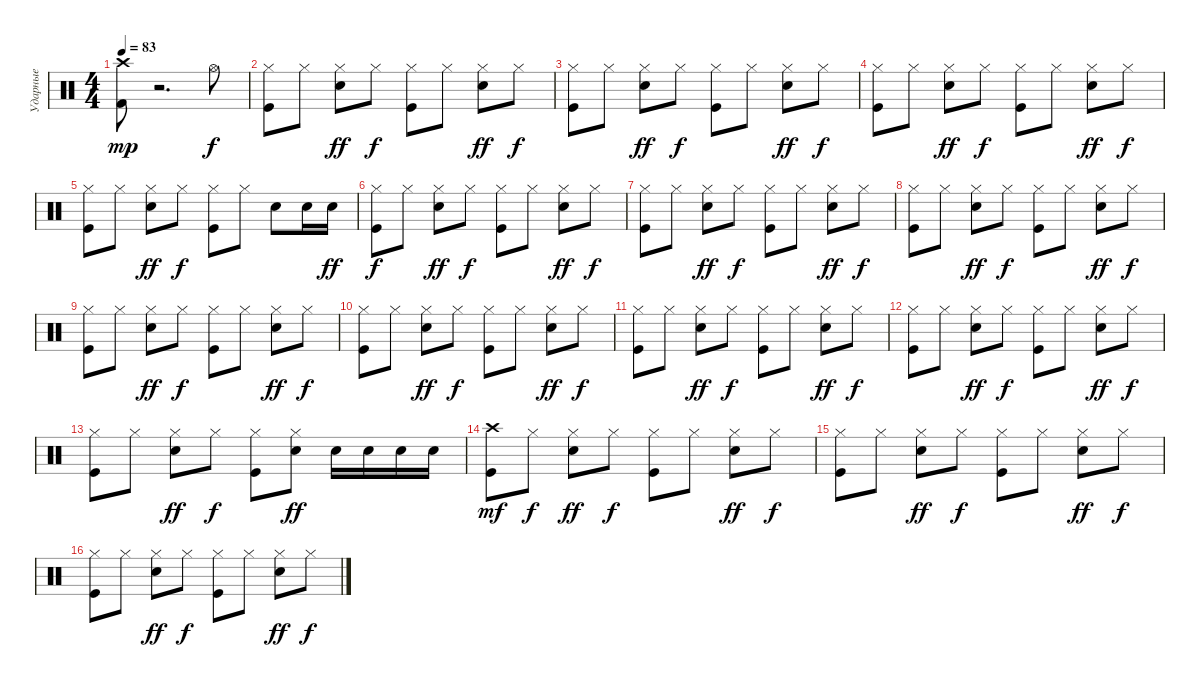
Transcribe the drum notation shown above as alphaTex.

\track ("Ударные" "Ударные") {instrument percussion}
\staff {score}
\articulation defaults
\ts (4 4)
\tempo 83
\clef neutral
\ks c
("Kick (hit) 2" "Crash high (hit)").8{dy mp} r.2{d} "Hi-Hat (open)".8{dy f} |
("Hi-Hat (closed)" "Kick (hit)").8 "Hi-Hat (closed)".8 ("Hi-Hat (closed)" "Electric Snare (hit)").8{dy ff} "Hi-Hat (closed)".8{dy f} ("Hi-Hat (closed)" "Kick (hit)").8 "Hi-Hat (closed)".8 ("Hi-Hat (closed)" "Electric Snare (hit)").8{dy ff} "Hi-Hat (closed)".8{dy f} |
("Hi-Hat (closed)" "Kick (hit)").8 "Hi-Hat (closed)".8 ("Hi-Hat (closed)" "Electric Snare (hit)").8{dy ff} "Hi-Hat (closed)".8{dy f} ("Hi-Hat (closed)" "Kick (hit)").8 "Hi-Hat (closed)".8 ("Hi-Hat (closed)" "Electric Snare (hit)").8{dy ff} "Hi-Hat (closed)".8{dy f} |
("Hi-Hat (closed)" "Kick (hit)").8 "Hi-Hat (closed)".8 ("Hi-Hat (closed)" "Electric Snare (hit)").8{dy ff} "Hi-Hat (closed)".8{dy f} ("Hi-Hat (closed)" "Kick (hit)").8 "Hi-Hat (closed)".8 ("Hi-Hat (closed)" "Electric Snare (hit)").8{dy ff} "Hi-Hat (closed)".8{dy f} |
("Hi-Hat (closed)" "Kick (hit)").8 "Hi-Hat (closed)".8 ("Hi-Hat (closed)" "Electric Snare (hit)").8{dy ff} "Hi-Hat (closed)".8{dy f} ("Hi-Hat (closed)" "Kick (hit)").8 "Hi-Hat (closed)".8 "Electric Snare (hit)".8 "Electric Snare (hit)".16 "Electric Snare (hit)".16{dy ff} |
("Hi-Hat (closed)" "Kick (hit)").8{dy f} "Hi-Hat (closed)".8 ("Hi-Hat (closed)" "Electric Snare (hit)").8{dy ff} "Hi-Hat (closed)".8{dy f} ("Hi-Hat (closed)" "Kick (hit)").8 "Hi-Hat (closed)".8 ("Hi-Hat (closed)" "Electric Snare (hit)").8{dy ff} "Hi-Hat (closed)".8{dy f} |
("Hi-Hat (closed)" "Kick (hit)").8 "Hi-Hat (closed)".8 ("Hi-Hat (closed)" "Electric Snare (hit)").8{dy ff} "Hi-Hat (closed)".8{dy f} ("Hi-Hat (closed)" "Kick (hit)").8 "Hi-Hat (closed)".8 ("Hi-Hat (closed)" "Electric Snare (hit)").8{dy ff} "Hi-Hat (closed)".8{dy f} |
("Hi-Hat (closed)" "Kick (hit)").8 "Hi-Hat (closed)".8 ("Hi-Hat (closed)" "Electric Snare (hit)").8{dy ff} "Hi-Hat (closed)".8{dy f} ("Hi-Hat (closed)" "Kick (hit)").8 "Hi-Hat (closed)".8 ("Hi-Hat (closed)" "Electric Snare (hit)").8{dy ff} "Hi-Hat (closed)".8{dy f} |
("Hi-Hat (closed)" "Kick (hit)").8 "Hi-Hat (closed)".8 ("Hi-Hat (closed)" "Electric Snare (hit)").8{dy ff} "Hi-Hat (closed)".8{dy f} ("Hi-Hat (closed)" "Kick (hit)").8 "Hi-Hat (closed)".8 ("Hi-Hat (closed)" "Electric Snare (hit)").8{dy ff} "Hi-Hat (closed)".8{dy f} |
("Hi-Hat (closed)" "Kick (hit)").8 "Hi-Hat (closed)".8 ("Hi-Hat (closed)" "Electric Snare (hit)").8{dy ff} "Hi-Hat (closed)".8{dy f} ("Hi-Hat (closed)" "Kick (hit)").8 "Hi-Hat (closed)".8 ("Hi-Hat (closed)" "Electric Snare (hit)").8{dy ff} "Hi-Hat (closed)".8{dy f} |
("Hi-Hat (closed)" "Kick (hit)").8 "Hi-Hat (closed)".8 ("Hi-Hat (closed)" "Electric Snare (hit)").8{dy ff} "Hi-Hat (closed)".8{dy f} ("Hi-Hat (closed)" "Kick (hit)").8 "Hi-Hat (closed)".8 ("Hi-Hat (closed)" "Electric Snare (hit)").8{dy ff} "Hi-Hat (closed)".8{dy f} |
("Hi-Hat (closed)" "Kick (hit)").8 "Hi-Hat (closed)".8 ("Hi-Hat (closed)" "Electric Snare (hit)").8{dy ff} "Hi-Hat (closed)".8{dy f} ("Hi-Hat (closed)" "Kick (hit)").8 "Hi-Hat (closed)".8 ("Hi-Hat (closed)" "Electric Snare (hit)").8{dy ff} "Hi-Hat (closed)".8{dy f} |
("Hi-Hat (closed)" "Kick (hit)").8 "Hi-Hat (closed)".8 ("Hi-Hat (closed)" "Electric Snare (hit)").8{dy ff} "Hi-Hat (closed)".8{dy f} ("Hi-Hat (closed)" "Kick (hit)").8 ("Hi-Hat (closed)" "Electric Snare (hit)").8{dy ff} "Electric Snare (hit)".16 "Electric Snare (hit)".16 "Electric Snare (hit)".16 "Electric Snare (hit)".16 |
("Crash high (hit)" "Kick (hit)").8{dy mf} "Hi-Hat (closed)".8{dy f} ("Hi-Hat (closed)" "Electric Snare (hit)").8{dy ff} "Hi-Hat (closed)".8{dy f} ("Hi-Hat (closed)" "Kick (hit)").8 "Hi-Hat (closed)".8 ("Hi-Hat (closed)" "Electric Snare (hit)").8{dy ff} "Hi-Hat (closed)".8{dy f} |
("Hi-Hat (closed)" "Kick (hit)").8 "Hi-Hat (closed)".8 ("Hi-Hat (closed)" "Electric Snare (hit)").8{dy ff} "Hi-Hat (closed)".8{dy f} ("Hi-Hat (closed)" "Kick (hit)").8 "Hi-Hat (closed)".8 ("Hi-Hat (closed)" "Electric Snare (hit)").8{dy ff} "Hi-Hat (closed)".8{dy f} |
("Hi-Hat (closed)" "Kick (hit)").8 "Hi-Hat (closed)".8 ("Hi-Hat (closed)" "Electric Snare (hit)").8{dy ff} "Hi-Hat (closed)".8{dy f} ("Hi-Hat (closed)" "Kick (hit)").8 "Hi-Hat (closed)".8 ("Hi-Hat (closed)" "Electric Snare (hit)").8{dy ff} "Hi-Hat (closed)".8{dy f}
